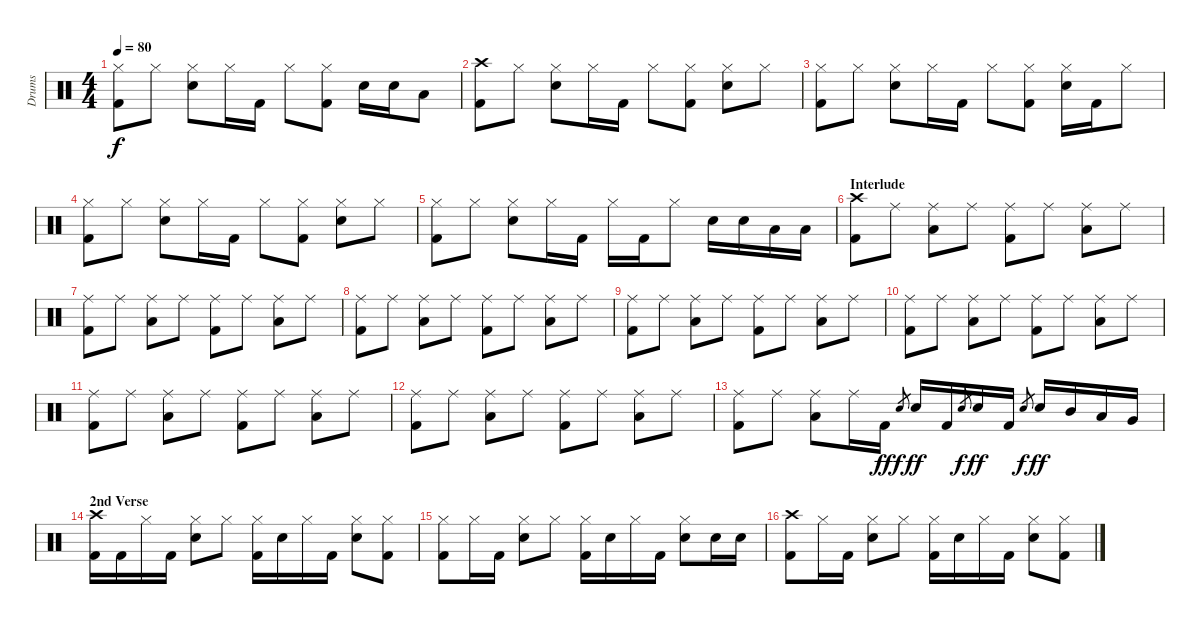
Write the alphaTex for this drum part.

\track ("Drums" "Drums") {instrument percussion}
\staff {score}
\articulation defaults
\ts (4 4)
\tempo 80
\clef neutral
\ks c
("Hi-Hat (closed)" "Kick (hit) 2").8{dy f} "Hi-Hat (closed)".8 ("Hi-Hat (closed)" "Snare (hit) 2").8 "Hi-Hat (closed)".16 "Kick (hit) 2".16 "Hi-Hat (closed)".8 ("Hi-Hat (closed)" "Kick (hit) 2").8 "Snare (hit) 2".16 "Snare (hit) 2".16 "Low Tom (hit)".8 |
("Crash high (hit)" "Kick (hit) 2").8 "Hi-Hat (closed)".8 ("Hi-Hat (closed)" "Snare (hit) 2").8 "Hi-Hat (closed)".16 "Kick (hit) 2".16 "Hi-Hat (closed)".8 ("Hi-Hat (closed)" "Kick (hit) 2").8 ("Hi-Hat (closed)" "Snare (hit) 2").8 "Hi-Hat (closed)".8 |
("Hi-Hat (closed)" "Kick (hit) 2").8 "Hi-Hat (closed)".8 ("Hi-Hat (closed)" "Snare (hit) 2").8 "Hi-Hat (closed)".16 "Kick (hit) 2".16 "Hi-Hat (closed)".8 ("Hi-Hat (closed)" "Kick (hit) 2").8 ("Hi-Hat (closed)" "Snare (hit) 2").16 "Kick (hit) 2".16 "Hi-Hat (closed)".8 |
("Hi-Hat (closed)" "Kick (hit) 2").8 "Hi-Hat (closed)".8 ("Hi-Hat (closed)" "Snare (hit) 2").8 "Hi-Hat (closed)".16 "Kick (hit) 2".16 "Hi-Hat (closed)".8 ("Hi-Hat (closed)" "Kick (hit) 2").8 ("Hi-Hat (closed)" "Snare (hit) 2").8 "Hi-Hat (closed)".8 |
("Hi-Hat (closed)" "Kick (hit) 2").8 "Hi-Hat (closed)".8 ("Hi-Hat (closed)" "Snare (hit) 2").8 "Hi-Hat (closed)".16 "Kick (hit) 2".16 "Hi-Hat (closed)".16 "Kick (hit) 2".16 "Hi-Hat (closed)".8 "Snare (hit) 2".16 "Snare (hit) 2".16 "Low Tom (hit)".16 "Low Tom (hit)".16 |
\section ("" "Interlude")
("Crash high (hit)" "Kick (hit) 2").8 "Ride (middle)".8 ("Ride (middle)" "Low Tom (hit)").8 "Ride (middle)".8 ("Ride (middle)" "Kick (hit) 2").8 "Ride (middle)".8 ("Ride (middle)" "Low Tom (hit)").8 "Ride (middle)".8 |
("Ride (middle)" "Kick (hit) 2").8 "Ride (middle)".8 ("Ride (middle)" "Low Tom (hit)").8 "Ride (middle)".8 ("Ride (middle)" "Kick (hit) 2").8 "Ride (middle)".8 ("Ride (middle)" "Low Tom (hit)").8 "Ride (middle)".8 |
("Ride (middle)" "Kick (hit) 2").8 "Ride (middle)".8 ("Ride (middle)" "Low Tom (hit)").8 "Ride (middle)".8 ("Ride (middle)" "Kick (hit) 2").8 "Ride (middle)".8 ("Ride (middle)" "Low Tom (hit)").8 "Ride (middle)".8 |
("Ride (middle)" "Kick (hit) 2").8 "Ride (middle)".8 ("Ride (middle)" "Low Tom (hit)").8 "Ride (middle)".8 ("Ride (middle)" "Kick (hit) 2").8 "Ride (middle)".8 ("Ride (middle)" "Low Tom (hit)").8 "Ride (middle)".8 |
("Ride (middle)" "Kick (hit) 2").8 "Ride (middle)".8 ("Ride (middle)" "Low Tom (hit)").8 "Ride (middle)".8 ("Ride (middle)" "Kick (hit) 2").8 "Ride (middle)".8 ("Ride (middle)" "Low Tom (hit)").8 "Ride (middle)".8 |
("Ride (middle)" "Kick (hit) 2").8 "Ride (middle)".8 ("Ride (middle)" "Low Tom (hit)").8 "Ride (middle)".8 ("Ride (middle)" "Kick (hit) 2").8 "Ride (middle)".8 ("Ride (middle)" "Low Tom (hit)").8 "Ride (middle)".8 |
("Ride (middle)" "Kick (hit) 2").8 "Ride (middle)".8 ("Ride (middle)" "Low Tom (hit)").8 "Ride (middle)".8 ("Ride (middle)" "Kick (hit) 2").8 "Ride (middle)".8 ("Ride (middle)" "Low Tom (hit)").8 "Ride (middle)".8 |
("Ride (middle)" "Kick (hit) 2").8 "Ride (middle)".8 ("Ride (middle)" "Low Tom (hit)").8 "Ride (middle)".16 "Kick (hit) 2".16{dy ff} "Snare (hit) 2".8{gr dy f} "Snare (hit) 2".16{dy ff} "Kick (hit) 2".16 "Snare (hit) 2".8{gr dy f} "Snare (hit) 2".16{dy ff} "Kick (hit) 2".16 "Snare (hit) 2".8{gr dy f} "Snare (hit) 2".16{dy ff} "Mid Tom (hit)".16 "Low Tom (hit)".16 "Very Low Tom (hit)".16 |
\section ("" "2nd Verse")
("Crash high (hit)" "Kick (hit) 2").16 "Kick (hit) 2".16 "Hi-Hat (closed)".16 "Kick (hit) 2".16 ("Hi-Hat (closed)" "Snare (hit) 2").8 "Hi-Hat (closed)".8 ("Hi-Hat (closed)" "Kick (hit) 2").16 "Snare (hit) 2".16 "Hi-Hat (closed)".16 "Kick (hit) 2".16 ("Hi-Hat (closed)" "Snare (hit) 2").8 ("Hi-Hat (closed)" "Kick (hit) 2").8 |
("Hi-Hat (closed)" "Kick (hit) 2").8 "Hi-Hat (closed)".16 "Kick (hit) 2".16 ("Hi-Hat (closed)" "Snare (hit) 2").8 "Hi-Hat (closed)".8 ("Hi-Hat (closed)" "Kick (hit) 2").16 "Snare (hit) 2".16 "Hi-Hat (closed)".16 "Kick (hit) 2".16 ("Hi-Hat (closed)" "Snare (hit) 2").8 "Snare (hit) 2".16 "Snare (hit) 2".16 |
("Crash high (hit)" "Kick (hit) 2").8 "Hi-Hat (closed)".16 "Kick (hit) 2".16 ("Hi-Hat (closed)" "Snare (hit) 2").8 "Hi-Hat (closed)".8 ("Hi-Hat (closed)" "Kick (hit) 2").16 "Snare (hit) 2".16 "Hi-Hat (closed)".16 "Kick (hit) 2".16 ("Hi-Hat (closed)" "Snare (hit) 2").8 ("Hi-Hat (closed)" "Kick (hit) 2").8
